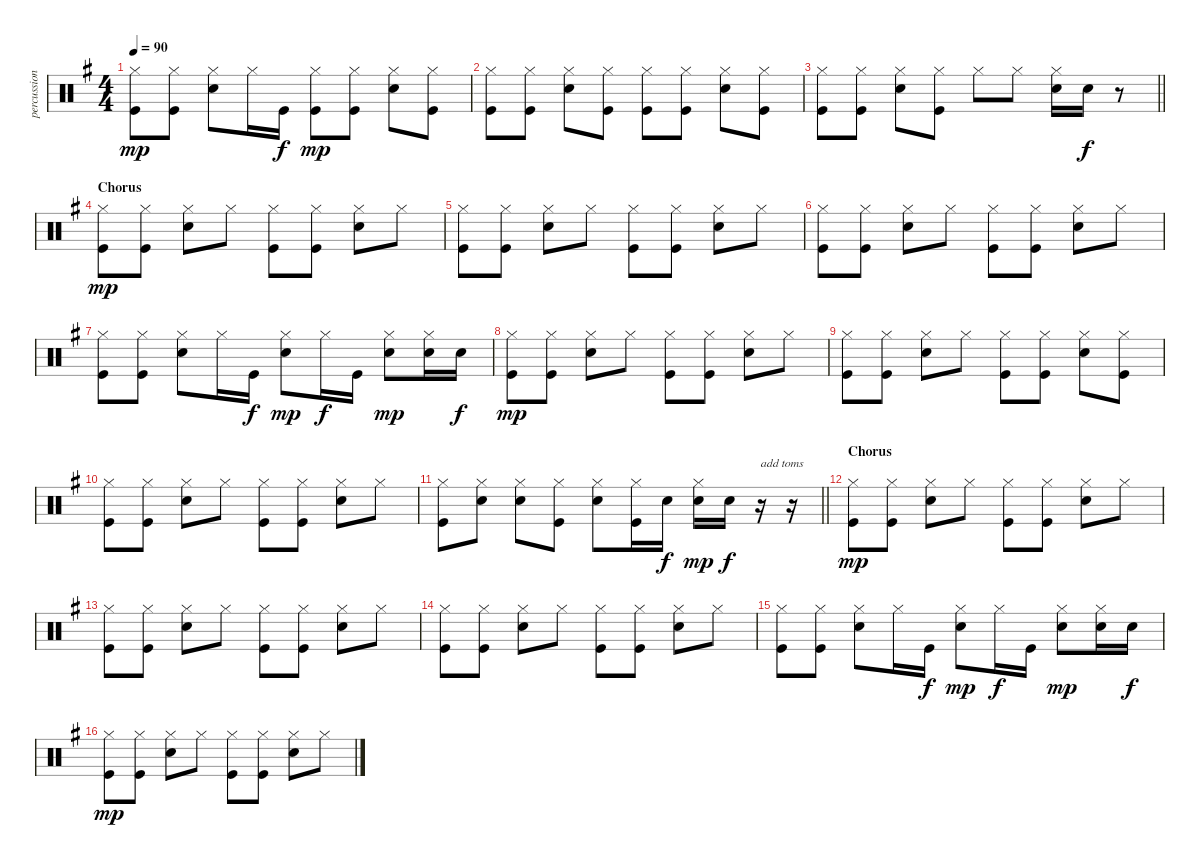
\track ("percussion" "percussion") {instrument percussion}
\staff {score}
\articulation defaults
\ts (4 4)
\tempo 90
\clef neutral
\ks g
("Hi-Hat (closed)" "Kick (hit)").8{dy mp} ("Hi-Hat (closed)" "Kick (hit)").8 ("Electric Snare (hit)" "Hi-Hat (closed)").8 "Hi-Hat (closed)".16 "Kick (hit)".16{dy f} ("Hi-Hat (closed)" "Kick (hit)").8{dy mp} ("Hi-Hat (closed)" "Kick (hit)").8 ("Electric Snare (hit)" "Hi-Hat (closed)").8 ("Hi-Hat (closed)" "Kick (hit)").8 |
("Hi-Hat (closed)" "Kick (hit)").8 ("Hi-Hat (closed)" "Kick (hit)").8 ("Electric Snare (hit)" "Hi-Hat (closed)").8 ("Hi-Hat (closed)" "Kick (hit)").8 ("Hi-Hat (closed)" "Kick (hit)").8 ("Hi-Hat (closed)" "Kick (hit)").8 ("Electric Snare (hit)" "Hi-Hat (closed)").8 ("Hi-Hat (closed)" "Kick (hit)").8 |
\barLineRight lightlight
("Hi-Hat (closed)" "Kick (hit)").8 ("Hi-Hat (closed)" "Kick (hit)").8 ("Electric Snare (hit)" "Hi-Hat (closed)").8 ("Hi-Hat (closed)" "Kick (hit)").8 "Hi-Hat (closed)".8 "Hi-Hat (closed)".8 ("Electric Snare (hit)" "Hi-Hat (closed)").16 "Electric Snare (hit)".16{dy f} r.8 |
\section ("" "Chorus")
("Hi-Hat (closed)" "Kick (hit)").8{dy mp} ("Hi-Hat (closed)" "Kick (hit)").8 ("Electric Snare (hit)" "Hi-Hat (closed)").8 "Hi-Hat (closed)".8 ("Hi-Hat (closed)" "Kick (hit)").8 ("Hi-Hat (closed)" "Kick (hit)").8 ("Electric Snare (hit)" "Hi-Hat (closed)").8 "Hi-Hat (closed)".8 |
("Hi-Hat (closed)" "Kick (hit)").8 ("Hi-Hat (closed)" "Kick (hit)").8 ("Electric Snare (hit)" "Hi-Hat (closed)").8 "Hi-Hat (closed)".8 ("Hi-Hat (closed)" "Kick (hit)").8 ("Hi-Hat (closed)" "Kick (hit)").8 ("Electric Snare (hit)" "Hi-Hat (closed)").8 "Hi-Hat (closed)".8 |
("Hi-Hat (closed)" "Kick (hit)").8 ("Hi-Hat (closed)" "Kick (hit)").8 ("Electric Snare (hit)" "Hi-Hat (closed)").8 "Hi-Hat (closed)".8 ("Hi-Hat (closed)" "Kick (hit)").8 ("Hi-Hat (closed)" "Kick (hit)").8 ("Electric Snare (hit)" "Hi-Hat (closed)").8 "Hi-Hat (closed)".8 |
("Hi-Hat (closed)" "Kick (hit)").8 ("Hi-Hat (closed)" "Kick (hit)").8 ("Electric Snare (hit)" "Hi-Hat (closed)").8 "Hi-Hat (closed)".16 "Kick (hit)".16{dy f} ("Electric Snare (hit)" "Hi-Hat (closed)").8{dy mp} "Hi-Hat (closed)".16{dy f} "Kick (hit)".16 ("Electric Snare (hit)" "Hi-Hat (closed)").8{dy mp} ("Electric Snare (hit)" "Hi-Hat (closed)").16 "Electric Snare (hit)".16{dy f} |
("Hi-Hat (closed)" "Kick (hit)").8{dy mp} ("Hi-Hat (closed)" "Kick (hit)").8 ("Electric Snare (hit)" "Hi-Hat (closed)").8 "Hi-Hat (closed)".8 ("Hi-Hat (closed)" "Kick (hit)").8 ("Hi-Hat (closed)" "Kick (hit)").8 ("Electric Snare (hit)" "Hi-Hat (closed)").8 "Hi-Hat (closed)".8 |
("Hi-Hat (closed)" "Kick (hit)").8 ("Hi-Hat (closed)" "Kick (hit)").8 ("Electric Snare (hit)" "Hi-Hat (closed)").8 "Hi-Hat (closed)".8 ("Hi-Hat (closed)" "Kick (hit)").8 ("Hi-Hat (closed)" "Kick (hit)").8 ("Electric Snare (hit)" "Hi-Hat (closed)").8 ("Hi-Hat (closed)" "Kick (hit)").8 |
("Hi-Hat (closed)" "Kick (hit)").8 ("Hi-Hat (closed)" "Kick (hit)").8 ("Electric Snare (hit)" "Hi-Hat (closed)").8 "Hi-Hat (closed)".8 ("Hi-Hat (closed)" "Kick (hit)").8 ("Hi-Hat (closed)" "Kick (hit)").8 ("Electric Snare (hit)" "Hi-Hat (closed)").8 "Hi-Hat (closed)".8 |
\barLineRight lightlight
("Hi-Hat (closed)" "Kick (hit)").8 ("Electric Snare (hit)" "Hi-Hat (closed)").8 ("Electric Snare (hit)" "Hi-Hat (closed)").8 ("Hi-Hat (closed)" "Kick (hit)").8 ("Electric Snare (hit)" "Hi-Hat (closed)").8 ("Hi-Hat (closed)" "Kick (hit)").16 "Electric Snare (hit)".16{dy f} ("Electric Snare (hit)" "Hi-Hat (closed)").16{dy mp} "Electric Snare (hit)".16{dy f} r.16{txt "add toms"} r.16 |
\section ("" "Chorus")
("Hi-Hat (closed)" "Kick (hit)").8{dy mp} ("Hi-Hat (closed)" "Kick (hit)").8 ("Electric Snare (hit)" "Hi-Hat (closed)").8 "Hi-Hat (closed)".8 ("Hi-Hat (closed)" "Kick (hit)").8 ("Hi-Hat (closed)" "Kick (hit)").8 ("Electric Snare (hit)" "Hi-Hat (closed)").8 "Hi-Hat (closed)".8 |
("Hi-Hat (closed)" "Kick (hit)").8 ("Hi-Hat (closed)" "Kick (hit)").8 ("Electric Snare (hit)" "Hi-Hat (closed)").8 "Hi-Hat (closed)".8 ("Hi-Hat (closed)" "Kick (hit)").8 ("Hi-Hat (closed)" "Kick (hit)").8 ("Electric Snare (hit)" "Hi-Hat (closed)").8 "Hi-Hat (closed)".8 |
("Hi-Hat (closed)" "Kick (hit)").8 ("Hi-Hat (closed)" "Kick (hit)").8 ("Electric Snare (hit)" "Hi-Hat (closed)").8 "Hi-Hat (closed)".8 ("Hi-Hat (closed)" "Kick (hit)").8 ("Hi-Hat (closed)" "Kick (hit)").8 ("Electric Snare (hit)" "Hi-Hat (closed)").8 "Hi-Hat (closed)".8 |
("Hi-Hat (closed)" "Kick (hit)").8 ("Hi-Hat (closed)" "Kick (hit)").8 ("Electric Snare (hit)" "Hi-Hat (closed)").8 "Hi-Hat (closed)".16 "Kick (hit)".16{dy f} ("Electric Snare (hit)" "Hi-Hat (closed)").8{dy mp} "Hi-Hat (closed)".16{dy f} "Kick (hit)".16 ("Electric Snare (hit)" "Hi-Hat (closed)").8{dy mp} ("Electric Snare (hit)" "Hi-Hat (closed)").16 "Electric Snare (hit)".16{dy f} |
("Hi-Hat (closed)" "Kick (hit)").8{dy mp} ("Hi-Hat (closed)" "Kick (hit)").8 ("Electric Snare (hit)" "Hi-Hat (closed)").8 "Hi-Hat (closed)".8 ("Hi-Hat (closed)" "Kick (hit)").8 ("Hi-Hat (closed)" "Kick (hit)").8 ("Electric Snare (hit)" "Hi-Hat (closed)").8 "Hi-Hat (closed)".8
